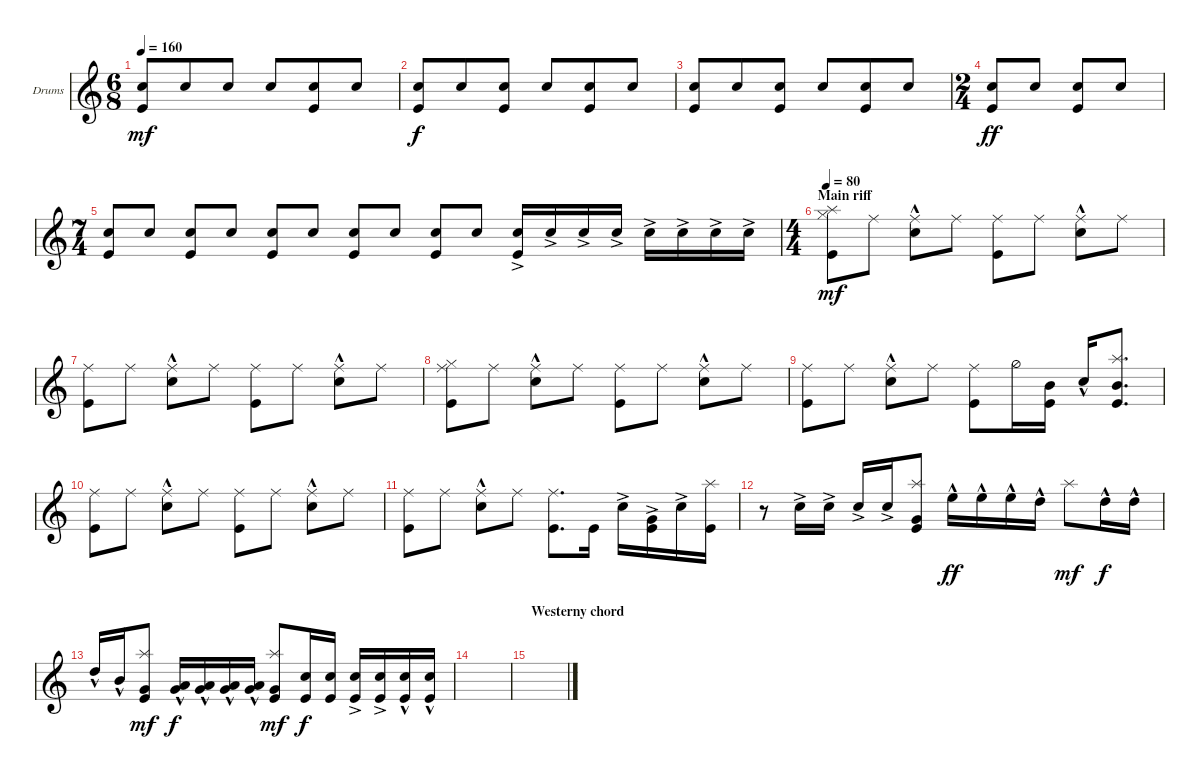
\defaultSystemsLayout 4
\bracketExtendMode groupsimilarinstruments
\firstSystemTrackNameOrientation horizontal
\otherSystemsTrackNameOrientation horizontal
\track ("Dom" "Drums") {instrument percussion}
\staff {score}
\articulation defaults
\ts (6 8)
\tempo 160
\clef g2
\ks c
("Snare (hit) 2" "Kick (hit)").8{dy mf} "Snare (hit) 2".8 "Snare (hit) 2".8 "Snare (hit) 2".8 ("Snare (hit) 2" "Kick (hit)").8 "Snare (hit) 2".8 |
("Snare (hit) 2" "Kick (hit)").8{dy f} "Snare (hit) 2".8 ("Snare (hit) 2" "Kick (hit)").8 "Snare (hit) 2".8 ("Snare (hit) 2" "Kick (hit)").8 "Snare (hit) 2".8 |
("Snare (hit) 2" "Kick (hit)").8 "Snare (hit) 2".8 ("Snare (hit) 2" "Kick (hit)").8 "Snare (hit) 2".8 ("Snare (hit) 2" "Kick (hit)").8 "Snare (hit) 2".8 |
\ts (2 4)
("Snare (hit) 2" "Kick (hit)").8{dy ff} "Snare (hit) 2".8 ("Snare (hit) 2" "Kick (hit)").8 "Snare (hit) 2".8 |
\ts (7 4)
("Snare (hit) 2" "Kick (hit)").8 "Snare (hit) 2".8 ("Snare (hit) 2" "Kick (hit)").8 "Snare (hit) 2".8 ("Snare (hit) 2" "Kick (hit)").8 "Snare (hit) 2".8 ("Snare (hit) 2" "Kick (hit)").8 "Snare (hit) 2".8 ("Snare (hit) 2" "Kick (hit)").8 "Snare (hit) 2".8 ("Snare (hit) 2"{ac} "Kick (hit)"{ac}).16 "Snare (hit) 2"{ac}.16 "Snare (hit) 2"{ac}.16 "Snare (hit) 2"{ac}.16 "Snare (hit) 2"{ac}.16 "Snare (hit) 2"{ac}.16 "Snare (hit) 2"{ac}.16 "Snare (hit) 2"{ac}.16 |
\ts (4 4)
\section ("" "Main riff")
\tempo 80
("Kick (hit)" "Hi-Hat (closed)" "Splash (hit)").8{dy mf} "Ride (middle)".8 ("Ride (middle)" "Snare (hit) 2"{hac}).8 "Ride (middle)".8 ("Ride (middle)" "Kick (hit)").8 "Ride (middle)".8 ("Ride (middle)" "Snare (hit) 2"{hac}).8 "Ride (middle)".8 |
("Ride (middle)" "Kick (hit)").8 "Ride (middle)".8 ("Ride (middle)" "Snare (hit) 2"{hac}).8 "Ride (middle)".8 ("Ride (middle)" "Kick (hit)").8 "Ride (middle)".8 ("Ride (middle)" "Snare (hit) 2"{hac}).8 "Ride (middle)".8 |
("Ride (middle)" "Kick (hit)" "Hi-Hat (closed)").8 "Ride (middle)".8 ("Ride (middle)" "Snare (hit) 2"{hac}).8 "Ride (middle)".8 ("Ride (middle)" "Kick (hit)").8 "Ride (middle)".8 ("Ride (middle)" "Snare (hit) 2"{hac}).8 "Ride (middle)".8 |
("Ride (middle)" "Kick (hit)").8 "Ride (middle)".8 ("Ride (middle)" "Snare (hit) 2"{hac}).8 "Ride (middle)".8 ("Ride (middle)" "Kick (hit)").8 "Hi-Hat (half)".16 ("Kick (hit)" "Mid Tom (hit)").16 "Snare (hit) 2"{hac}.16 ("Kick (hit)" "Splash (hit)" "Mid Tom (hit)").8{d} |
("Ride (middle)" "Kick (hit)").8 "Ride (middle)".8 ("Ride (middle)" "Snare (hit) 2"{hac}).8 "Ride (middle)".8 ("Ride (middle)" "Kick (hit)").8 "Ride (middle)".8 ("Ride (middle)" "Snare (hit) 2"{hac}).8 "Ride (middle)".8 |
("Ride (middle)" "Kick (hit)").8 "Ride (middle)".8 ("Ride (middle)" "Snare (hit) 2"{hac}).8 "Ride (middle)".8 ("Ride (middle)" "Kick (hit)").8{d} "Kick (hit)".16 "Snare (hit) 2"{ac}.16 ("Kick (hit)"{ac} "Very Low Tom (hit)"{ac}).16 "Snare (hit) 2"{ac}.16 ("Kick (hit)" "Splash (hit)").16 |
r.8 "Snare (hit) 2"{ac}.16 "Snare (hit) 2"{ac}.16 "Snare (hit) 2"{ac}.16 "Snare (hit) 2"{ac}.16 ("Kick (hit)" "Very Low Tom (hit)" "Splash (hit)").8 "High Floor Tom (hit)"{hac}.16{dy ff} "High Floor Tom (hit)"{hac}.16 "High Floor Tom (hit)"{hac}.16 "High Tom (hit)"{hac}.16 "Splash (hit)".8{dy mf} "High Tom (hit)"{hac}.16{dy f} "High Tom (hit)"{hac}.16 |
"High Tom (hit)"{hac}.16 "Mid Tom (hit)"{hac}.16 ("Splash (hit)" "Kick (hit)" "Very Low Tom (hit)").8{dy mf} ("Low Tom (hit)"{hac} "Very Low Tom (hit)"{hac}).16{dy f} ("Low Tom (hit)"{hac} "Very Low Tom (hit)"{hac}).16 ("Low Tom (hit)"{hac} "Very Low Tom (hit)"{hac}).16 ("Low Tom (hit)"{hac} "Very Low Tom (hit)"{hac}).16 ("Splash (hit)" "Very Low Tom (hit)" "Kick (hit)").8{dy mf} ("Snare (hit) 2" "Kick (hit)").16{dy f} ("Snare (hit) 2" "Kick (hit)").16 ("Snare (hit) 2"{ac} "Kick (hit)").16 ("Snare (hit) 2"{ac} "Kick (hit)").16 ("Snare (hit) 2"{hac} "Kick (hit)").16 ("Snare (hit) 2"{hac} "Kick (hit)").16 |
|
\section ("" "Westerny chord")
